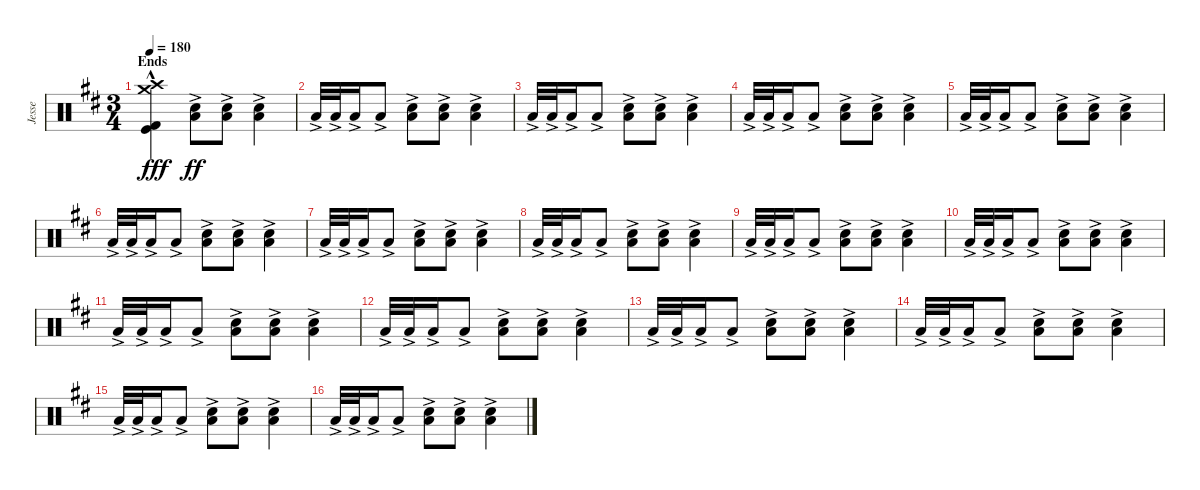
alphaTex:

\track ("Jesse" "Jesse") {instrument percussion}
\staff {score}
\articulation defaults
\ts (3 4)
\section ("" "Ends")
\tempo 180
\clef neutral
\ks d
("Crash high (hit)" "Crash medium (hit)" "Kick (hit)"{hac} "Kick (hit) 2"{hac}).4{dy fff} ("Electric Snare (hit)"{ac} "Low Floor Tom (hit)"{ac}).8{dy ff} ("Electric Snare (hit)"{ac} "Low Floor Tom (hit)"{ac}).8 ("Electric Snare (hit)"{ac} "Low Floor Tom (hit)"{ac}).4 |
"Low Floor Tom (hit)"{ac}.32 "Low Floor Tom (hit)"{ac}.32 "Low Floor Tom (hit)"{ac}.16 "Low Floor Tom (hit)"{ac}.8 ("Electric Snare (hit)"{ac} "Low Floor Tom (hit)"{ac}).8 ("Electric Snare (hit)"{ac} "Low Floor Tom (hit)"{ac}).8 ("Electric Snare (hit)"{ac} "Low Floor Tom (hit)"{ac}).4 |
"Low Floor Tom (hit)"{ac}.32 "Low Floor Tom (hit)"{ac}.32 "Low Floor Tom (hit)"{ac}.16 "Low Floor Tom (hit)"{ac}.8 ("Electric Snare (hit)"{ac} "Low Floor Tom (hit)"{ac}).8 ("Electric Snare (hit)"{ac} "Low Floor Tom (hit)"{ac}).8 ("Electric Snare (hit)"{ac} "Low Floor Tom (hit)"{ac}).4 |
"Low Floor Tom (hit)"{ac}.32 "Low Floor Tom (hit)"{ac}.32 "Low Floor Tom (hit)"{ac}.16 "Low Floor Tom (hit)"{ac}.8 ("Electric Snare (hit)"{ac} "Low Floor Tom (hit)"{ac}).8 ("Electric Snare (hit)"{ac} "Low Floor Tom (hit)"{ac}).8 ("Electric Snare (hit)"{ac} "Low Floor Tom (hit)"{ac}).4 |
"Low Floor Tom (hit)"{ac}.32 "Low Floor Tom (hit)"{ac}.32 "Low Floor Tom (hit)"{ac}.16 "Low Floor Tom (hit)"{ac}.8 ("Electric Snare (hit)"{ac} "Low Floor Tom (hit)"{ac}).8 ("Electric Snare (hit)"{ac} "Low Floor Tom (hit)"{ac}).8 ("Electric Snare (hit)"{ac} "Low Floor Tom (hit)"{ac}).4 |
"Low Floor Tom (hit)"{ac}.32 "Low Floor Tom (hit)"{ac}.32 "Low Floor Tom (hit)"{ac}.16 "Low Floor Tom (hit)"{ac}.8 ("Electric Snare (hit)"{ac} "Low Floor Tom (hit)"{ac}).8 ("Electric Snare (hit)"{ac} "Low Floor Tom (hit)"{ac}).8 ("Electric Snare (hit)"{ac} "Low Floor Tom (hit)"{ac}).4 |
"Low Floor Tom (hit)"{ac}.32 "Low Floor Tom (hit)"{ac}.32 "Low Floor Tom (hit)"{ac}.16 "Low Floor Tom (hit)"{ac}.8 ("Electric Snare (hit)"{ac} "Low Floor Tom (hit)"{ac}).8 ("Electric Snare (hit)"{ac} "Low Floor Tom (hit)"{ac}).8 ("Electric Snare (hit)"{ac} "Low Floor Tom (hit)"{ac}).4 |
"Low Floor Tom (hit)"{ac}.32 "Low Floor Tom (hit)"{ac}.32 "Low Floor Tom (hit)"{ac}.16 "Low Floor Tom (hit)"{ac}.8 ("Electric Snare (hit)"{ac} "Low Floor Tom (hit)"{ac}).8 ("Electric Snare (hit)"{ac} "Low Floor Tom (hit)"{ac}).8 ("Electric Snare (hit)"{ac} "Low Floor Tom (hit)"{ac}).4 |
"Low Floor Tom (hit)"{ac}.32 "Low Floor Tom (hit)"{ac}.32 "Low Floor Tom (hit)"{ac}.16 "Low Floor Tom (hit)"{ac}.8 ("Electric Snare (hit)"{ac} "Low Floor Tom (hit)"{ac}).8 ("Electric Snare (hit)"{ac} "Low Floor Tom (hit)"{ac}).8 ("Electric Snare (hit)"{ac} "Low Floor Tom (hit)"{ac}).4 |
"Low Floor Tom (hit)"{ac}.32 "Low Floor Tom (hit)"{ac}.32 "Low Floor Tom (hit)"{ac}.16 "Low Floor Tom (hit)"{ac}.8 ("Electric Snare (hit)"{ac} "Low Floor Tom (hit)"{ac}).8 ("Electric Snare (hit)"{ac} "Low Floor Tom (hit)"{ac}).8 ("Electric Snare (hit)"{ac} "Low Floor Tom (hit)"{ac}).4 |
"Low Floor Tom (hit)"{ac}.32 "Low Floor Tom (hit)"{ac}.32 "Low Floor Tom (hit)"{ac}.16 "Low Floor Tom (hit)"{ac}.8 ("Electric Snare (hit)"{ac} "Low Floor Tom (hit)"{ac}).8 ("Electric Snare (hit)"{ac} "Low Floor Tom (hit)"{ac}).8 ("Electric Snare (hit)"{ac} "Low Floor Tom (hit)"{ac}).4 |
"Low Floor Tom (hit)"{ac}.32 "Low Floor Tom (hit)"{ac}.32 "Low Floor Tom (hit)"{ac}.16 "Low Floor Tom (hit)"{ac}.8 ("Electric Snare (hit)"{ac} "Low Floor Tom (hit)"{ac}).8 ("Electric Snare (hit)"{ac} "Low Floor Tom (hit)"{ac}).8 ("Electric Snare (hit)"{ac} "Low Floor Tom (hit)"{ac}).4 |
"Low Floor Tom (hit)"{ac}.32 "Low Floor Tom (hit)"{ac}.32 "Low Floor Tom (hit)"{ac}.16 "Low Floor Tom (hit)"{ac}.8 ("Electric Snare (hit)"{ac} "Low Floor Tom (hit)"{ac}).8 ("Electric Snare (hit)"{ac} "Low Floor Tom (hit)"{ac}).8 ("Electric Snare (hit)"{ac} "Low Floor Tom (hit)"{ac}).4 |
"Low Floor Tom (hit)"{ac}.32 "Low Floor Tom (hit)"{ac}.32 "Low Floor Tom (hit)"{ac}.16 "Low Floor Tom (hit)"{ac}.8 ("Electric Snare (hit)"{ac} "Low Floor Tom (hit)"{ac}).8 ("Electric Snare (hit)"{ac} "Low Floor Tom (hit)"{ac}).8 ("Electric Snare (hit)"{ac} "Low Floor Tom (hit)"{ac}).4 |
"Low Floor Tom (hit)"{ac}.32 "Low Floor Tom (hit)"{ac}.32 "Low Floor Tom (hit)"{ac}.16 "Low Floor Tom (hit)"{ac}.8 ("Electric Snare (hit)"{ac} "Low Floor Tom (hit)"{ac}).8 ("Electric Snare (hit)"{ac} "Low Floor Tom (hit)"{ac}).8 ("Electric Snare (hit)"{ac} "Low Floor Tom (hit)"{ac}).4 |
"Low Floor Tom (hit)"{ac}.32 "Low Floor Tom (hit)"{ac}.32 "Low Floor Tom (hit)"{ac}.16 "Low Floor Tom (hit)"{ac}.8 ("Electric Snare (hit)"{ac} "Low Floor Tom (hit)"{ac}).8 ("Electric Snare (hit)"{ac} "Low Floor Tom (hit)"{ac}).8 ("Electric Snare (hit)"{ac} "Low Floor Tom (hit)"{ac}).4
